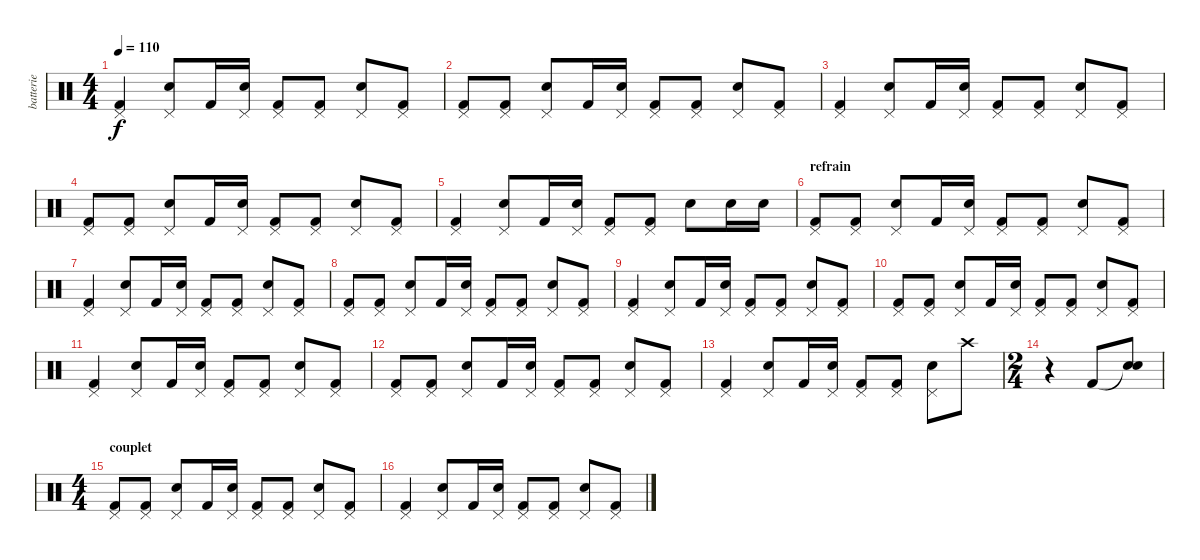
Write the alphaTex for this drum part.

\track ("batterie" "batterie") {instrument percussion}
\staff {score}
\articulation defaults
\ts (4 4)
\tempo 110
\clef neutral
\ks c
("Pedal Hi-Hat (hit)" "Kick (hit) 2").4{dy f} ("Pedal Hi-Hat (hit)" "Snare (hit) 2").8 "Kick (hit) 2".16 ("Pedal Hi-Hat (hit)" "Snare (hit) 2").16 ("Pedal Hi-Hat (hit)" "Kick (hit) 2").8 ("Pedal Hi-Hat (hit)" "Kick (hit) 2").8 ("Pedal Hi-Hat (hit)" "Snare (hit) 2").8 ("Pedal Hi-Hat (hit)" "Kick (hit) 2").8 |
("Pedal Hi-Hat (hit)" "Kick (hit) 2").8 ("Pedal Hi-Hat (hit)" "Kick (hit) 2").8 ("Pedal Hi-Hat (hit)" "Snare (hit) 2").8 "Kick (hit) 2".16 ("Pedal Hi-Hat (hit)" "Snare (hit) 2").16 ("Pedal Hi-Hat (hit)" "Kick (hit) 2").8 ("Pedal Hi-Hat (hit)" "Kick (hit) 2").8 ("Pedal Hi-Hat (hit)" "Snare (hit) 2").8 ("Pedal Hi-Hat (hit)" "Kick (hit) 2").8 |
("Pedal Hi-Hat (hit)" "Kick (hit) 2").4 ("Pedal Hi-Hat (hit)" "Snare (hit) 2").8 "Kick (hit) 2".16 ("Pedal Hi-Hat (hit)" "Snare (hit) 2").16 ("Pedal Hi-Hat (hit)" "Kick (hit) 2").8 ("Pedal Hi-Hat (hit)" "Kick (hit) 2").8 ("Pedal Hi-Hat (hit)" "Snare (hit) 2").8 ("Pedal Hi-Hat (hit)" "Kick (hit) 2").8 |
("Pedal Hi-Hat (hit)" "Kick (hit) 2").8 ("Pedal Hi-Hat (hit)" "Kick (hit) 2").8 ("Pedal Hi-Hat (hit)" "Snare (hit) 2").8 "Kick (hit) 2".16 ("Pedal Hi-Hat (hit)" "Snare (hit) 2").16 ("Pedal Hi-Hat (hit)" "Kick (hit) 2").8 ("Pedal Hi-Hat (hit)" "Kick (hit) 2").8 ("Pedal Hi-Hat (hit)" "Snare (hit) 2").8 ("Pedal Hi-Hat (hit)" "Kick (hit) 2").8 |
("Pedal Hi-Hat (hit)" "Kick (hit) 2").4 ("Pedal Hi-Hat (hit)" "Snare (hit) 2").8 "Kick (hit) 2".16 ("Pedal Hi-Hat (hit)" "Snare (hit) 2").16 ("Pedal Hi-Hat (hit)" "Kick (hit) 2").8 ("Pedal Hi-Hat (hit)" "Kick (hit) 2").8 "Snare (hit) 2".8 "Snare (hit) 2".16 "Snare (hit) 2".16 |
\section ("" "refrain")
("Pedal Hi-Hat (hit)" "Kick (hit) 2").8 ("Pedal Hi-Hat (hit)" "Kick (hit) 2").8 ("Pedal Hi-Hat (hit)" "Snare (hit) 2").8 "Kick (hit) 2".16 ("Pedal Hi-Hat (hit)" "Snare (hit) 2").16 ("Pedal Hi-Hat (hit)" "Kick (hit) 2").8 ("Pedal Hi-Hat (hit)" "Kick (hit) 2").8 ("Pedal Hi-Hat (hit)" "Snare (hit) 2").8 ("Pedal Hi-Hat (hit)" "Kick (hit) 2").8 |
("Pedal Hi-Hat (hit)" "Kick (hit) 2").4 ("Pedal Hi-Hat (hit)" "Snare (hit) 2").8 "Kick (hit) 2".16 ("Pedal Hi-Hat (hit)" "Snare (hit) 2").16 ("Pedal Hi-Hat (hit)" "Kick (hit) 2").8 ("Pedal Hi-Hat (hit)" "Kick (hit) 2").8 ("Pedal Hi-Hat (hit)" "Snare (hit) 2").8 ("Pedal Hi-Hat (hit)" "Kick (hit) 2").8 |
("Pedal Hi-Hat (hit)" "Kick (hit) 2").8 ("Pedal Hi-Hat (hit)" "Kick (hit) 2").8 ("Pedal Hi-Hat (hit)" "Snare (hit) 2").8 "Kick (hit) 2".16 ("Pedal Hi-Hat (hit)" "Snare (hit) 2").16 ("Pedal Hi-Hat (hit)" "Kick (hit) 2").8 ("Pedal Hi-Hat (hit)" "Kick (hit) 2").8 ("Pedal Hi-Hat (hit)" "Snare (hit) 2").8 ("Pedal Hi-Hat (hit)" "Kick (hit) 2").8 |
("Pedal Hi-Hat (hit)" "Kick (hit) 2").4 ("Pedal Hi-Hat (hit)" "Snare (hit) 2").8 "Kick (hit) 2".16 ("Pedal Hi-Hat (hit)" "Snare (hit) 2").16 ("Pedal Hi-Hat (hit)" "Kick (hit) 2").8 ("Pedal Hi-Hat (hit)" "Kick (hit) 2").8 ("Pedal Hi-Hat (hit)" "Snare (hit) 2").8 ("Pedal Hi-Hat (hit)" "Kick (hit) 2").8 |
("Pedal Hi-Hat (hit)" "Kick (hit) 2").8 ("Pedal Hi-Hat (hit)" "Kick (hit) 2").8 ("Pedal Hi-Hat (hit)" "Snare (hit) 2").8 "Kick (hit) 2".16 ("Pedal Hi-Hat (hit)" "Snare (hit) 2").16 ("Pedal Hi-Hat (hit)" "Kick (hit) 2").8 ("Pedal Hi-Hat (hit)" "Kick (hit) 2").8 ("Pedal Hi-Hat (hit)" "Snare (hit) 2").8 ("Pedal Hi-Hat (hit)" "Kick (hit) 2").8 |
("Pedal Hi-Hat (hit)" "Kick (hit) 2").4 ("Pedal Hi-Hat (hit)" "Snare (hit) 2").8 "Kick (hit) 2".16 ("Pedal Hi-Hat (hit)" "Snare (hit) 2").16 ("Pedal Hi-Hat (hit)" "Kick (hit) 2").8 ("Pedal Hi-Hat (hit)" "Kick (hit) 2").8 ("Pedal Hi-Hat (hit)" "Snare (hit) 2").8 ("Pedal Hi-Hat (hit)" "Kick (hit) 2").8 |
("Pedal Hi-Hat (hit)" "Kick (hit) 2").8 ("Pedal Hi-Hat (hit)" "Kick (hit) 2").8 ("Pedal Hi-Hat (hit)" "Snare (hit) 2").8 "Kick (hit) 2".16 ("Pedal Hi-Hat (hit)" "Snare (hit) 2").16 ("Pedal Hi-Hat (hit)" "Kick (hit) 2").8 ("Pedal Hi-Hat (hit)" "Kick (hit) 2").8 ("Pedal Hi-Hat (hit)" "Snare (hit) 2").8 ("Pedal Hi-Hat (hit)" "Kick (hit) 2").8 |
("Pedal Hi-Hat (hit)" "Kick (hit) 2").4 ("Pedal Hi-Hat (hit)" "Snare (hit) 2").8 "Kick (hit) 2".16 ("Pedal Hi-Hat (hit)" "Snare (hit) 2").16 ("Pedal Hi-Hat (hit)" "Kick (hit) 2").8 ("Pedal Hi-Hat (hit)" "Kick (hit) 2").8 ("Pedal Hi-Hat (hit)" "Snare (hit) 2").8 "Crash high (hit)".8 |
\ts (2 4)
r.4 "Kick (hit) 2".8 ("Snare (hit)"{t} "Snare (hit) 2").8 |
\ts (4 4)
\section ("" "couplet")
("Pedal Hi-Hat (hit)" "Kick (hit) 2").8 ("Pedal Hi-Hat (hit)" "Kick (hit) 2").8 ("Pedal Hi-Hat (hit)" "Snare (hit) 2").8 "Kick (hit) 2".16 ("Pedal Hi-Hat (hit)" "Snare (hit) 2").16 ("Pedal Hi-Hat (hit)" "Kick (hit) 2").8 ("Pedal Hi-Hat (hit)" "Kick (hit) 2").8 ("Pedal Hi-Hat (hit)" "Snare (hit) 2").8 ("Pedal Hi-Hat (hit)" "Kick (hit) 2").8 |
("Pedal Hi-Hat (hit)" "Kick (hit) 2").4 ("Pedal Hi-Hat (hit)" "Snare (hit) 2").8 "Kick (hit) 2".16 ("Pedal Hi-Hat (hit)" "Snare (hit) 2").16 ("Pedal Hi-Hat (hit)" "Kick (hit) 2").8 ("Pedal Hi-Hat (hit)" "Kick (hit) 2").8 ("Pedal Hi-Hat (hit)" "Snare (hit) 2").8 ("Pedal Hi-Hat (hit)" "Kick (hit) 2").8
